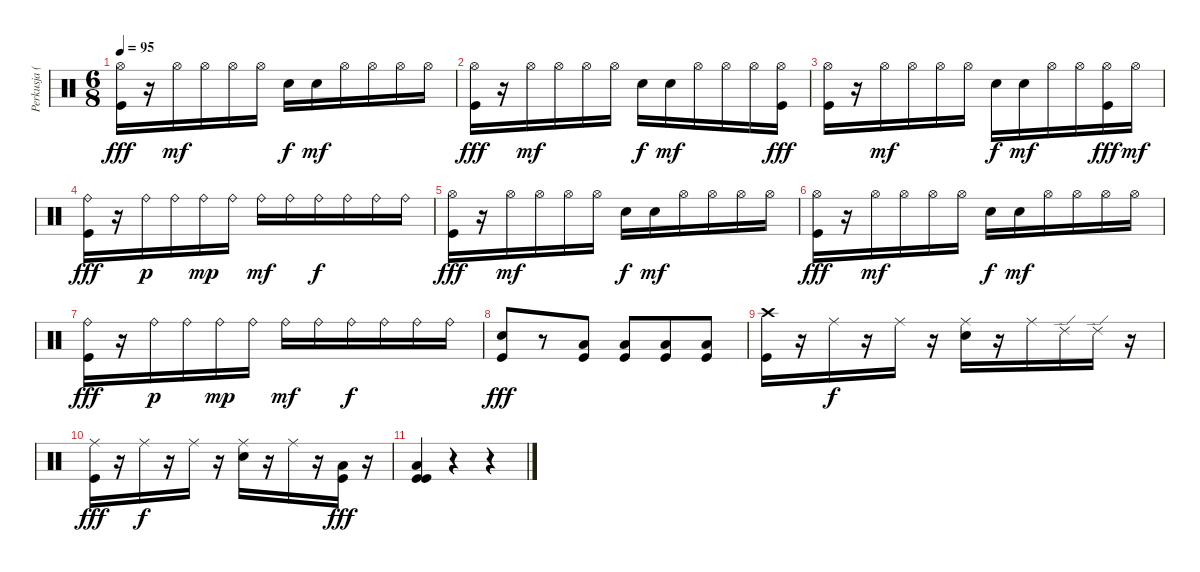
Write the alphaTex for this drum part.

\track ("Perkusja (by kucharz89)" "Perkusja (") {instrument percussion}
\staff {score}
\articulation defaults
\ts (6 8)
\tempo 95
\clef neutral
\ks c
("Hi-Hat (open)" "Kick (hit)").16{dy fff} r.16 "Hi-Hat (open)".16{dy mf} "Hi-Hat (open)".16 "Hi-Hat (open)".16 "Hi-Hat (open)".16 "Electric Snare (hit)".16{dy f} "Electric Snare (hit)".16{dy mf} "Hi-Hat (open)".16 "Hi-Hat (open)".16 "Hi-Hat (open)".16 "Hi-Hat (open)".16 |
("Hi-Hat (open)" "Kick (hit)").16{dy fff} r.16 "Hi-Hat (open)".16{dy mf} "Hi-Hat (open)".16 "Hi-Hat (open)".16 "Hi-Hat (open)".16 "Electric Snare (hit)".16{dy f} "Electric Snare (hit)".16{dy mf} "Hi-Hat (open)".16 "Hi-Hat (open)".16 "Hi-Hat (open)".16 ("Hi-Hat (open)" "Kick (hit)").16{dy fff} |
("Hi-Hat (open)" "Kick (hit)").16 r.16 "Hi-Hat (open)".16{dy mf} "Hi-Hat (open)".16 "Hi-Hat (open)".16 "Hi-Hat (open)".16 "Electric Snare (hit)".16{dy f} "Electric Snare (hit)".16{dy mf} "Hi-Hat (open)".16 "Hi-Hat (open)".16 ("Hi-Hat (open)" "Kick (hit)").16{dy fff} "Hi-Hat (open)".16{dy mf} |
("Ride (bell)" "Kick (hit)").16{dy fff} r.16 "Ride (bell)".16{dy p} "Ride (bell)".16 "Ride (bell)".16{dy mp} "Ride (bell)".16 "Ride (bell)".16{dy mf} "Ride (bell)".16 "Ride (bell)".16{dy f} "Ride (bell)".16 "Ride (bell)".16 "Ride (bell)".16 |
("Hi-Hat (open)" "Kick (hit)").16{dy fff} r.16 "Hi-Hat (open)".16{dy mf} "Hi-Hat (open)".16 "Hi-Hat (open)".16 "Hi-Hat (open)".16 "Electric Snare (hit)".16{dy f} "Electric Snare (hit)".16{dy mf} "Hi-Hat (open)".16 "Hi-Hat (open)".16 "Hi-Hat (open)".16 "Hi-Hat (open)".16 |
("Hi-Hat (open)" "Kick (hit)").16{dy fff} r.16 "Hi-Hat (open)".16{dy mf} "Hi-Hat (open)".16 "Hi-Hat (open)".16 "Hi-Hat (open)".16 "Electric Snare (hit)".16{dy f} "Electric Snare (hit)".16{dy mf} "Hi-Hat (open)".16 "Hi-Hat (open)".16 "Hi-Hat (open)".16 "Hi-Hat (open)".16 |
("Ride (bell)" "Kick (hit)").16{dy fff} r.16 "Ride (bell)".16{dy p} "Ride (bell)".16 "Ride (bell)".16{dy mp} "Ride (bell)".16 "Ride (bell)".16{dy mf} "Ride (bell)".16 "Ride (bell)".16{dy f} "Ride (bell)".16 "Ride (bell)".16 "Ride (bell)".16 |
("Electric Snare (hit)" "Kick (hit)").8{dy fff} r.8 ("Low Floor Tom (hit)" "Kick (hit)").8 ("Low Floor Tom (hit)" "Kick (hit)").8 ("Low Floor Tom (hit)" "Kick (hit)").8 ("Low Floor Tom (hit)" "Kick (hit)").8 |
("Crash high (hit)" "Kick (hit)").16 r.16 "Ride (middle)".16{dy f} r.16 "Ride (middle)".16 r.16 ("Ride (middle)" "Electric Snare (hit)").16 r.16 "Ride (middle)".16 "Ride (edge) 2".16 "Ride (edge) 2".16 r.16 |
("Ride (middle)" "Kick (hit)").16{dy fff} r.16 "Ride (middle)".16{dy f} r.16 "Ride (middle)".16 r.16 ("Ride (middle)" "Electric Snare (hit)").16 r.16 "Ride (middle)".16 r.16 ("Low Floor Tom (hit)" "Kick (hit)").16{dy fff} r.16 |
("Low Floor Tom (hit)" "Kick (hit)" "Kick (hit)").4 r.4 r.4
